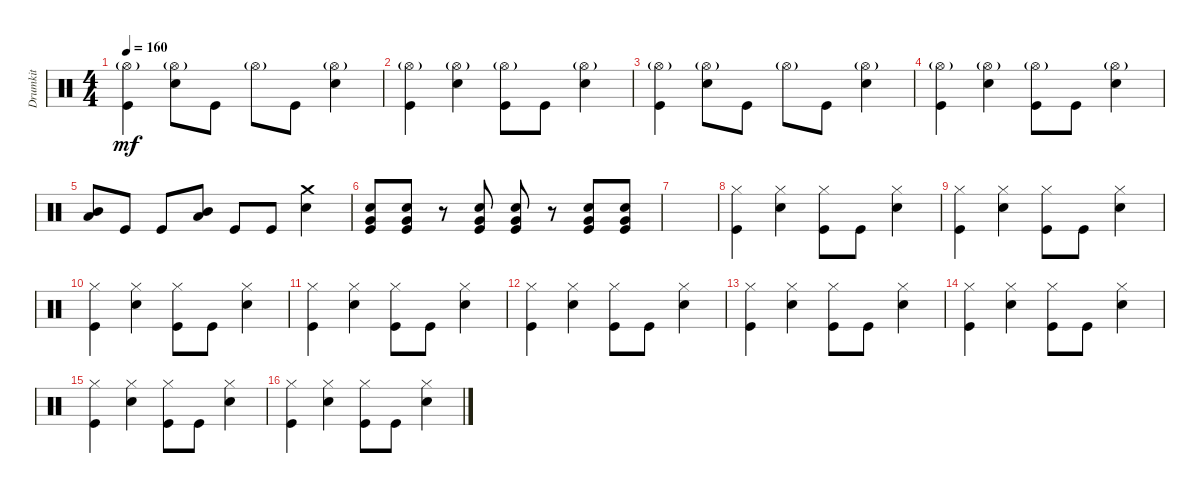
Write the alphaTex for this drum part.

\track ("Drumkit" "Drumkit") {instrument percussion}
\staff {score}
\articulation defaults
\ts (4 4)
\tempo 160
\clef neutral
\ks c
("Kick (hit)" "Hi-Hat (open)"{g}).4{dy mf} ("Snare (hit) 2" "Hi-Hat (open)"{g}).8 "Kick (hit)".8 "Hi-Hat (open)"{g}.8 "Kick (hit)".8 ("Snare (hit) 2" "Hi-Hat (open)"{g}).4 |
("Kick (hit)" "Hi-Hat (open)"{g}).4 ("Hi-Hat (open)"{g} "Snare (hit) 2").4 ("Kick (hit)" "Hi-Hat (open)"{g}).8 "Kick (hit)".8 ("Snare (hit) 2" "Hi-Hat (open)"{g}).4 |
("Kick (hit)" "Hi-Hat (open)"{g}).4 ("Snare (hit) 2" "Hi-Hat (open)"{g}).8 "Kick (hit)".8 "Hi-Hat (open)"{g}.8 "Kick (hit)".8 ("Snare (hit) 2" "Hi-Hat (open)"{g}).4 |
("Kick (hit)" "Hi-Hat (open)"{g}).4 ("Hi-Hat (open)"{g} "Snare (hit) 2").4 ("Kick (hit)" "Hi-Hat (open)"{g}).8 "Kick (hit)".8 ("Snare (hit) 2" "Hi-Hat (open)"{g}).4 |
("Low Tom (hit)" "Mid Tom (hit)").8 "Kick (hit)".8 "Kick (hit)".8 ("Low Tom (hit)" "Mid Tom (hit)").8 "Kick (hit)".8 "Kick (hit)".8 ("Snare (hit) 2" "Crash medium (hit)").4 |
("Kick (hit)" "Very Low Tom (hit)" "Snare (hit) 2").8 ("Kick (hit)" "Very Low Tom (hit)" "Snare (hit) 2").8 r.8 ("Kick (hit)" "Very Low Tom (hit)" "Snare (hit) 2").8 ("Kick (hit)" "Very Low Tom (hit)" "Snare (hit) 2").8 r.8 ("Kick (hit)" "Very Low Tom (hit)" "Snare (hit) 2").8 ("Kick (hit)" "Very Low Tom (hit)" "Snare (hit) 2").8 |
|
("Kick (hit)" "Hi-Hat (closed)").4 ("Hi-Hat (closed)" "Snare (hit) 2").4 ("Kick (hit)" "Hi-Hat (closed)").8 "Kick (hit)".8 ("Snare (hit) 2" "Hi-Hat (closed)").4 |
("Kick (hit)" "Hi-Hat (closed)").4 ("Hi-Hat (closed)" "Snare (hit) 2").4 ("Kick (hit)" "Hi-Hat (closed)").8 "Kick (hit)".8 ("Snare (hit) 2" "Hi-Hat (closed)").4 |
("Kick (hit)" "Hi-Hat (closed)").4 ("Hi-Hat (closed)" "Snare (hit) 2").4 ("Kick (hit)" "Hi-Hat (closed)").8 "Kick (hit)".8 ("Snare (hit) 2" "Hi-Hat (closed)").4 |
("Kick (hit)" "Hi-Hat (closed)").4 ("Hi-Hat (closed)" "Snare (hit) 2").4 ("Kick (hit)" "Hi-Hat (closed)").8 "Kick (hit)".8 ("Snare (hit) 2" "Hi-Hat (closed)").4 |
("Kick (hit)" "Hi-Hat (closed)").4 ("Hi-Hat (closed)" "Snare (hit) 2").4 ("Kick (hit)" "Hi-Hat (closed)").8 "Kick (hit)".8 ("Snare (hit) 2" "Hi-Hat (closed)").4 |
("Kick (hit)" "Hi-Hat (closed)").4 ("Hi-Hat (closed)" "Snare (hit) 2").4 ("Kick (hit)" "Hi-Hat (closed)").8 "Kick (hit)".8 ("Snare (hit) 2" "Hi-Hat (closed)").4 |
("Kick (hit)" "Hi-Hat (closed)").4 ("Hi-Hat (closed)" "Snare (hit) 2").4 ("Kick (hit)" "Hi-Hat (closed)").8 "Kick (hit)".8 ("Snare (hit) 2" "Hi-Hat (closed)").4 |
("Kick (hit)" "Hi-Hat (closed)").4 ("Hi-Hat (closed)" "Snare (hit) 2").4 ("Kick (hit)" "Hi-Hat (closed)").8 "Kick (hit)".8 ("Snare (hit) 2" "Hi-Hat (closed)").4 |
("Kick (hit)" "Hi-Hat (closed)").4 ("Hi-Hat (closed)" "Snare (hit) 2").4 ("Kick (hit)" "Hi-Hat (closed)").8 "Kick (hit)".8 ("Snare (hit) 2" "Hi-Hat (closed)").4
